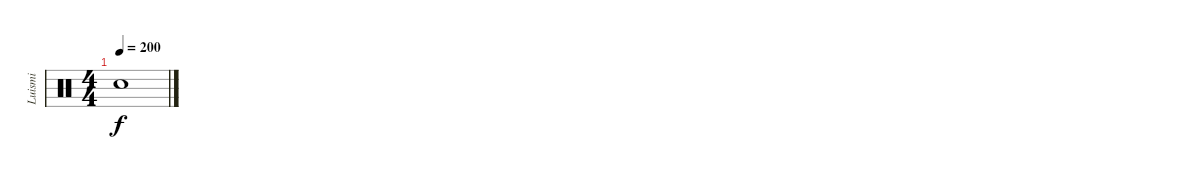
\track ("Luismi" "Luismi") {instrument percussion}
\staff {score}
\articulation defaults
\ts (4 4)
\tempo 200
\clef neutral
\ks c "Snare (hit)"{t}.1{dy f}
